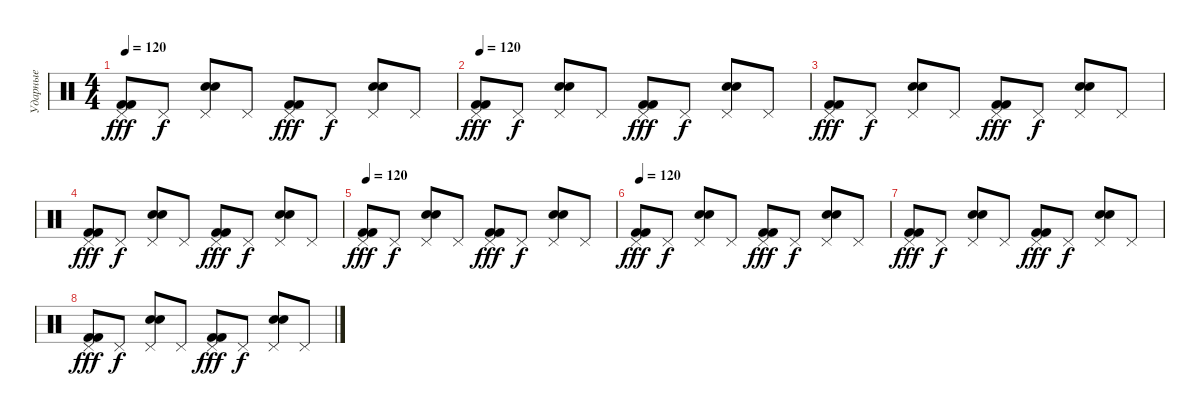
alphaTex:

\track ("Ударные" "Ударные") {solo instrument percussion}
\staff {score}
\articulation defaults
\ts (4 4)
\tempo 120
\clef neutral
\ks c
("Kick (hit) 2" "Kick (hit) 2" "Pedal Hi-Hat (hit)").8{dy fff} "Pedal Hi-Hat (hit)".8{dy f} ("Electric Snare (hit)" "Electric Snare (hit)" "Pedal Hi-Hat (hit)").8 "Pedal Hi-Hat (hit)".8 ("Kick (hit) 2" "Kick (hit) 2" "Pedal Hi-Hat (hit)").8{dy fff} "Pedal Hi-Hat (hit)".8{dy f} ("Electric Snare (hit)" "Electric Snare (hit)" "Pedal Hi-Hat (hit)").8 "Pedal Hi-Hat (hit)".8 |
\tempo 120
("Kick (hit) 2" "Kick (hit) 2" "Pedal Hi-Hat (hit)").8{dy fff} "Pedal Hi-Hat (hit)".8{dy f} ("Electric Snare (hit)" "Electric Snare (hit)" "Pedal Hi-Hat (hit)").8 "Pedal Hi-Hat (hit)".8 ("Kick (hit) 2" "Kick (hit) 2" "Pedal Hi-Hat (hit)").8{dy fff} "Pedal Hi-Hat (hit)".8{dy f} ("Electric Snare (hit)" "Electric Snare (hit)" "Pedal Hi-Hat (hit)").8 "Pedal Hi-Hat (hit)".8 |
("Kick (hit) 2" "Kick (hit) 2" "Pedal Hi-Hat (hit)").8{dy fff} "Pedal Hi-Hat (hit)".8{dy f} ("Electric Snare (hit)" "Electric Snare (hit)" "Pedal Hi-Hat (hit)").8 "Pedal Hi-Hat (hit)".8 ("Kick (hit) 2" "Kick (hit) 2" "Pedal Hi-Hat (hit)").8{dy fff} "Pedal Hi-Hat (hit)".8{dy f} ("Electric Snare (hit)" "Electric Snare (hit)" "Pedal Hi-Hat (hit)").8 "Pedal Hi-Hat (hit)".8 |
("Kick (hit) 2" "Kick (hit) 2" "Pedal Hi-Hat (hit)").8{dy fff} "Pedal Hi-Hat (hit)".8{dy f} ("Electric Snare (hit)" "Electric Snare (hit)" "Pedal Hi-Hat (hit)").8 "Pedal Hi-Hat (hit)".8 ("Kick (hit) 2" "Kick (hit) 2" "Pedal Hi-Hat (hit)").8{dy fff} "Pedal Hi-Hat (hit)".8{dy f} ("Electric Snare (hit)" "Electric Snare (hit)" "Pedal Hi-Hat (hit)").8 "Pedal Hi-Hat (hit)".8 |
\tempo 120
("Kick (hit) 2" "Kick (hit) 2" "Pedal Hi-Hat (hit)").8{dy fff} "Pedal Hi-Hat (hit)".8{dy f} ("Electric Snare (hit)" "Electric Snare (hit)" "Pedal Hi-Hat (hit)").8 "Pedal Hi-Hat (hit)".8 ("Kick (hit) 2" "Kick (hit) 2" "Pedal Hi-Hat (hit)").8{dy fff} "Pedal Hi-Hat (hit)".8{dy f} ("Electric Snare (hit)" "Electric Snare (hit)" "Pedal Hi-Hat (hit)").8 "Pedal Hi-Hat (hit)".8 |
\tempo 120
("Kick (hit) 2" "Kick (hit) 2" "Pedal Hi-Hat (hit)").8{dy fff} "Pedal Hi-Hat (hit)".8{dy f} ("Electric Snare (hit)" "Electric Snare (hit)" "Pedal Hi-Hat (hit)").8 "Pedal Hi-Hat (hit)".8 ("Kick (hit) 2" "Kick (hit) 2" "Pedal Hi-Hat (hit)").8{dy fff} "Pedal Hi-Hat (hit)".8{dy f} ("Electric Snare (hit)" "Electric Snare (hit)" "Pedal Hi-Hat (hit)").8 "Pedal Hi-Hat (hit)".8 |
("Kick (hit) 2" "Kick (hit) 2" "Pedal Hi-Hat (hit)").8{dy fff} "Pedal Hi-Hat (hit)".8{dy f} ("Electric Snare (hit)" "Electric Snare (hit)" "Pedal Hi-Hat (hit)").8 "Pedal Hi-Hat (hit)".8 ("Kick (hit) 2" "Kick (hit) 2" "Pedal Hi-Hat (hit)").8{dy fff} "Pedal Hi-Hat (hit)".8{dy f} ("Electric Snare (hit)" "Electric Snare (hit)" "Pedal Hi-Hat (hit)").8 "Pedal Hi-Hat (hit)".8 |
("Kick (hit) 2" "Kick (hit) 2" "Pedal Hi-Hat (hit)").8{dy fff} "Pedal Hi-Hat (hit)".8{dy f} ("Electric Snare (hit)" "Electric Snare (hit)" "Pedal Hi-Hat (hit)").8 "Pedal Hi-Hat (hit)".8 ("Kick (hit) 2" "Kick (hit) 2" "Pedal Hi-Hat (hit)").8{dy fff} "Pedal Hi-Hat (hit)".8{dy f} ("Electric Snare (hit)" "Electric Snare (hit)" "Pedal Hi-Hat (hit)").8 "Pedal Hi-Hat (hit)".8
